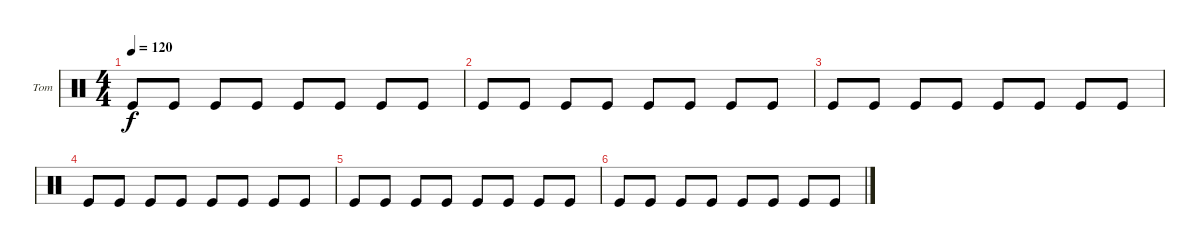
\defaultSystemsLayout 4
\bracketExtendMode groupsimilarinstruments
\firstSystemTrackNameOrientation horizontal
\otherSystemsTrackNameOrientation horizontal
\track ("Melodic Tom" "Tom") {instrument percussion}
\staff {score}
\articulation defaults
\ts (4 4)
\tempo 120
\clef neutral
\scale
0.333333
\ks c "Kick (hit)".8{dy f} "Kick (hit)".8 "Kick (hit)".8 "Kick (hit)".8 "Kick (hit)".8 "Kick (hit)".8 "Kick (hit)".8 "Kick (hit)".8
|
\scale
0.333333 "Kick (hit)".8 "Kick (hit)".8 "Kick (hit)".8 "Kick (hit)".8 "Kick (hit)".8 "Kick (hit)".8 "Kick (hit)".8 "Kick (hit)".8 |
\scale
0.333333 "Kick (hit)".8 "Kick (hit)".8 "Kick (hit)".8 "Kick (hit)".8 "Kick (hit)".8 "Kick (hit)".8 "Kick (hit)".8 "Kick (hit)".8 |
\scale
0.333333 "Kick (hit)".8 "Kick (hit)".8 "Kick (hit)".8 "Kick (hit)".8 "Kick (hit)".8 "Kick (hit)".8 "Kick (hit)".8 "Kick (hit)".8 |
\scale
0.333333 "Kick (hit)".8 "Kick (hit)".8 "Kick (hit)".8 "Kick (hit)".8 "Kick (hit)".8 "Kick (hit)".8 "Kick (hit)".8 "Kick (hit)".8 |
\scale
0.333333 "Kick (hit)".8 "Kick (hit)".8 "Kick (hit)".8 "Kick (hit)".8 "Kick (hit)".8 "Kick (hit)".8 "Kick (hit)".8 "Kick (hit)".8 |
\scale
0.333333
